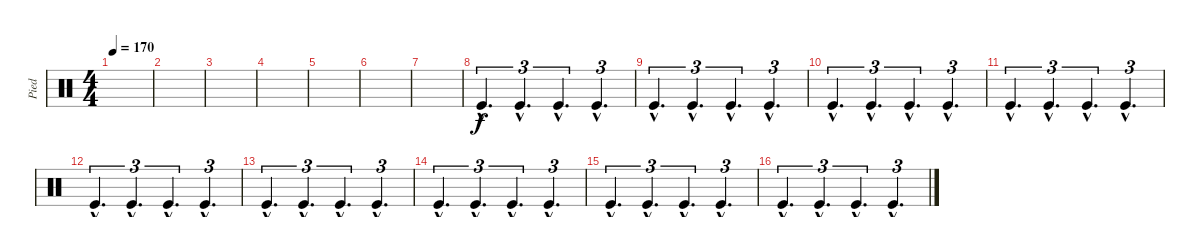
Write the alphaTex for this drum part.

\track ("Pied" "Pied") {instrument percussion}
\staff {score}
\articulation defaults
\ts (4 4)
\tempo 170
\clef neutral
\ks c
|
|
|
|
|
|
|
"Kick (hit)"{hac}.4{d tu (3 2)} "Kick (hit)"{hac}.4{d tu (3 2)} "Kick (hit)"{hac}.4{d tu (3 2)} "Kick (hit)"{hac}.4{d tu (3 2)} |
"Kick (hit)"{hac}.4{d tu (3 2)} "Kick (hit)"{hac}.4{d tu (3 2)} "Kick (hit)"{hac}.4{d tu (3 2)} "Kick (hit)"{hac}.4{d tu (3 2)} |
"Kick (hit)"{hac}.4{d tu (3 2)} "Kick (hit)"{hac}.4{d tu (3 2)} "Kick (hit)"{hac}.4{d tu (3 2)} "Kick (hit)"{hac}.4{d tu (3 2)} |
"Kick (hit)"{hac}.4{d tu (3 2)} "Kick (hit)"{hac}.4{d tu (3 2)} "Kick (hit)"{hac}.4{d tu (3 2)} "Kick (hit)"{hac}.4{d tu (3 2)} |
"Kick (hit)"{hac}.4{d tu (3 2)} "Kick (hit)"{hac}.4{d tu (3 2)} "Kick (hit)"{hac}.4{d tu (3 2)} "Kick (hit)"{hac}.4{d tu (3 2)} |
"Kick (hit)"{hac}.4{d tu (3 2)} "Kick (hit)"{hac}.4{d tu (3 2)} "Kick (hit)"{hac}.4{d tu (3 2)} "Kick (hit)"{hac}.4{d tu (3 2)} |
"Kick (hit)"{hac}.4{d tu (3 2)} "Kick (hit)"{hac}.4{d tu (3 2)} "Kick (hit)"{hac}.4{d tu (3 2)} "Kick (hit)"{hac}.4{d tu (3 2)} |
"Kick (hit)"{hac}.4{d tu (3 2)} "Kick (hit)"{hac}.4{d tu (3 2)} "Kick (hit)"{hac}.4{d tu (3 2)} "Kick (hit)"{hac}.4{d tu (3 2)} |
"Kick (hit)"{hac}.4{d tu (3 2)} "Kick (hit)"{hac}.4{d tu (3 2)} "Kick (hit)"{hac}.4{d tu (3 2)} "Kick (hit)"{hac}.4{d tu (3 2)}
